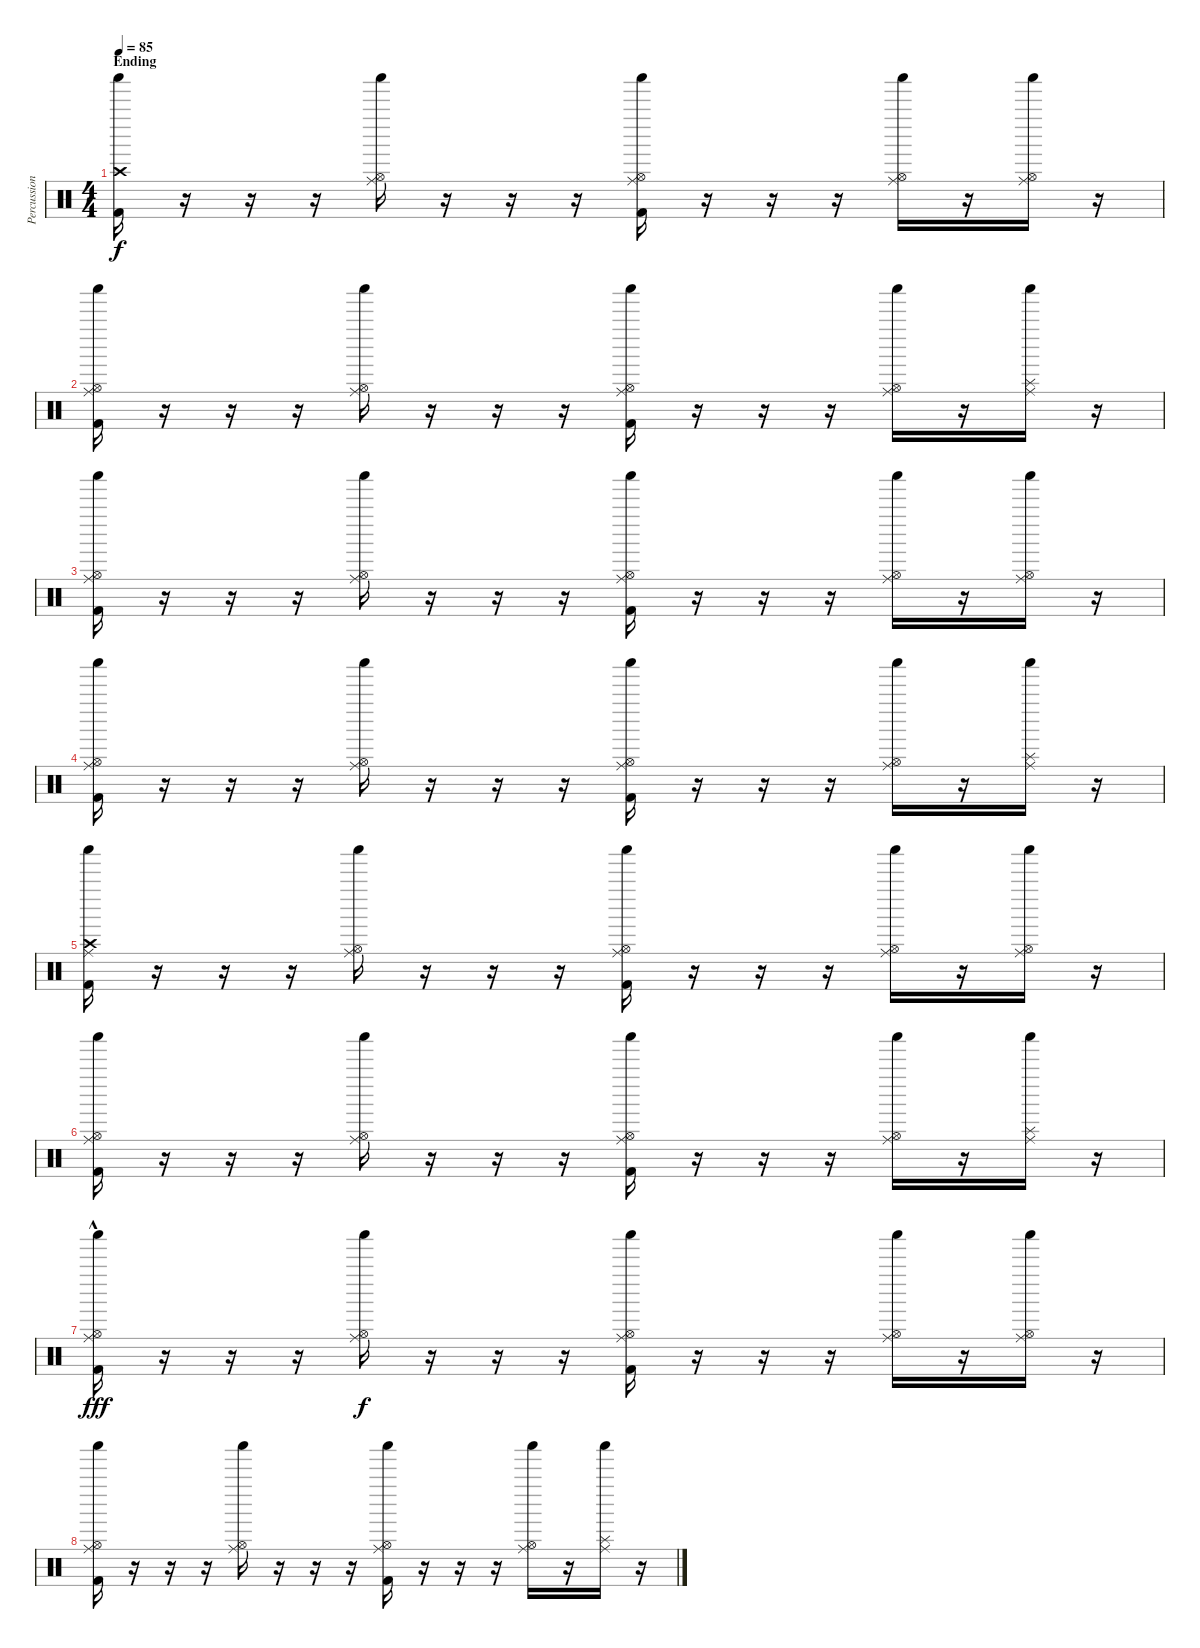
\track ("Percussion" "Percussion") {instrument percussion}
\staff {score}
\articulation defaults
\ts (4 4)
\section ("" "Ending")
\tempo 85
\clef neutral
\ks c
("Crash high (hit)" "Shaker (hit)" "Kick (hit) 2").16{dy f} r.16 r.16 r.16 ("Hi-Hat (open)" "Shaker (hit)" "Ride (middle)").16 r.16 r.16 r.16 ("Hi-Hat (open)" "Shaker (hit)" "Ride (middle)" "Kick (hit) 2").16 r.16 r.16 r.16 ("Hi-Hat (open)" "Shaker (hit)" "Ride (middle)").16 r.16 ("Hi-Hat (open)" "Shaker (hit)" "Ride (middle)").16 r.16 |
("Hi-Hat (open)" "Shaker (hit)" "Ride (middle)" "Kick (hit) 2").16 r.16 r.16 r.16 ("Hi-Hat (open)" "Shaker (hit)" "Ride (middle)").16 r.16 r.16 r.16 ("Hi-Hat (open)" "Shaker (hit)" "Ride (middle)" "Kick (hit) 2").16 r.16 r.16 r.16 ("Hi-Hat (open)" "Shaker (hit)" "Ride (middle)").16 r.16 ("Splash (hit)" "Shaker (hit)" "Ride (middle)").16 r.16 |
("Hi-Hat (open)" "Shaker (hit)" "Ride (middle)" "Kick (hit) 2").16 r.16 r.16 r.16 ("Hi-Hat (open)" "Shaker (hit)" "Ride (middle)").16 r.16 r.16 r.16 ("Hi-Hat (open)" "Shaker (hit)" "Ride (middle)" "Kick (hit) 2").16 r.16 r.16 r.16 ("Hi-Hat (open)" "Shaker (hit)" "Ride (middle)").16 r.16 ("Hi-Hat (open)" "Shaker (hit)" "Ride (middle)").16 r.16 |
("Hi-Hat (open)" "Shaker (hit)" "Ride (middle)" "Kick (hit) 2").16 r.16 r.16 r.16 ("Hi-Hat (open)" "Shaker (hit)" "Ride (middle)").16 r.16 r.16 r.16 ("Hi-Hat (open)" "Shaker (hit)" "Ride (middle)" "Kick (hit) 2").16 r.16 r.16 r.16 ("Hi-Hat (open)" "Shaker (hit)" "Ride (middle)").16 r.16 ("Splash (hit)" "Shaker (hit)" "Ride (middle)").16 r.16 |
("Crash high (hit)" "Shaker (hit)" "Ride (middle)" "Kick (hit) 2").16 r.16 r.16 r.16 ("Hi-Hat (open)" "Shaker (hit)" "Ride (middle)").16 r.16 r.16 r.16 ("Hi-Hat (open)" "Shaker (hit)" "Ride (middle)" "Kick (hit) 2").16 r.16 r.16 r.16 ("Hi-Hat (open)" "Shaker (hit)" "Ride (middle)").16 r.16 ("Hi-Hat (open)" "Shaker (hit)" "Ride (middle)").16 r.16 |
("Hi-Hat (open)" "Shaker (hit)" "Ride (middle)" "Kick (hit) 2").16 r.16 r.16 r.16 ("Hi-Hat (open)" "Shaker (hit)" "Ride (middle)").16 r.16 r.16 r.16 ("Hi-Hat (open)" "Shaker (hit)" "Ride (middle)" "Kick (hit) 2").16 r.16 r.16 r.16 ("Hi-Hat (open)" "Shaker (hit)" "Ride (middle)").16 r.16 ("Splash (hit)" "Shaker (hit)" "Ride (middle)").16 r.16 |
("Hi-Hat (open)"{hac} "Shaker (hit)" "Ride (middle)" "Kick (hit) 2").16{dy fff} r.16 r.16 r.16 ("Hi-Hat (open)" "Shaker (hit)" "Ride (middle)").16{dy f} r.16 r.16 r.16 ("Hi-Hat (open)" "Shaker (hit)" "Ride (middle)" "Kick (hit) 2").16 r.16 r.16 r.16 ("Hi-Hat (open)" "Shaker (hit)" "Ride (middle)").16 r.16 ("Hi-Hat (open)" "Shaker (hit)" "Ride (middle)").16 r.16 |
("Hi-Hat (open)" "Shaker (hit)" "Ride (middle)" "Kick (hit) 2").16 r.16 r.16 r.16 ("Hi-Hat (open)" "Shaker (hit)" "Ride (middle)").16 r.16 r.16 r.16 ("Hi-Hat (open)" "Shaker (hit)" "Ride (middle)" "Kick (hit) 2").16 r.16 r.16 r.16 ("Hi-Hat (open)" "Shaker (hit)" "Ride (middle)").16 r.16 ("Splash (hit)" "Shaker (hit)" "Ride (middle)").16 r.16
